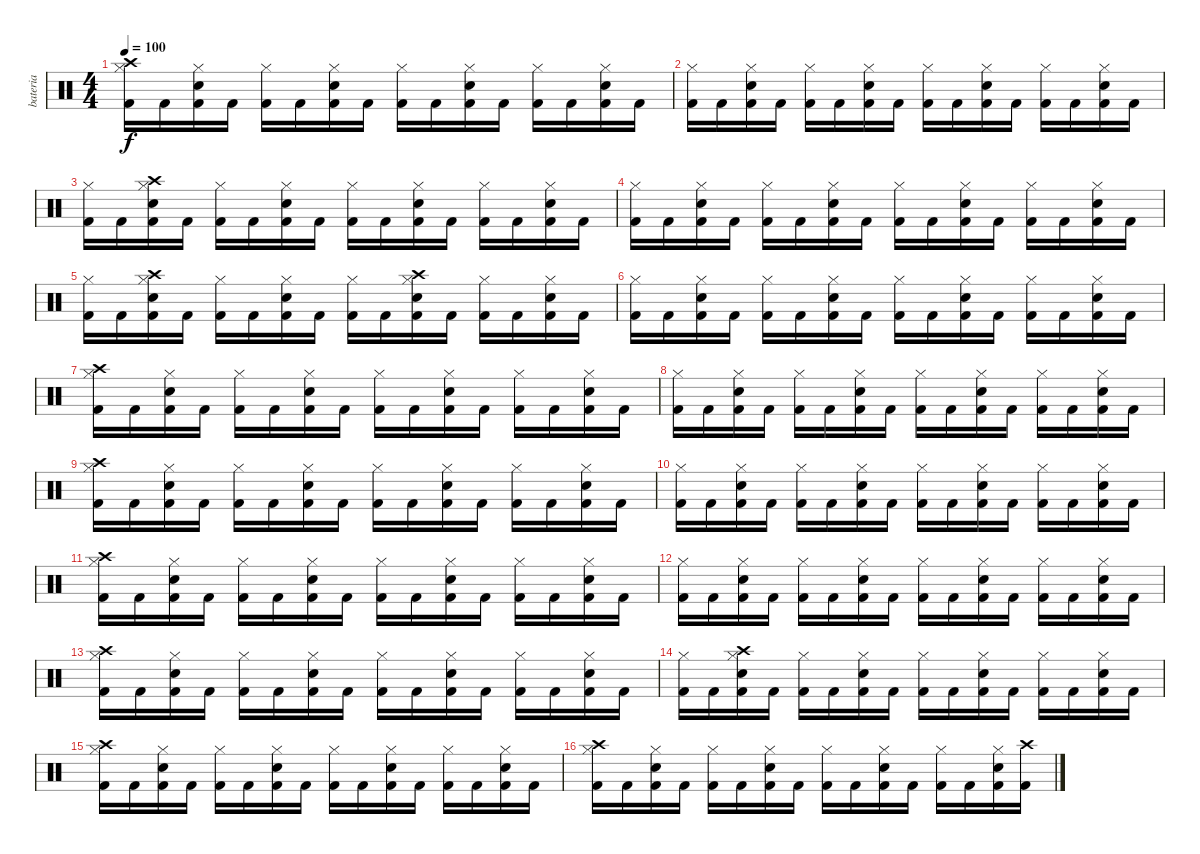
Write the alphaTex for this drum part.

\track ("bateria" "bateria") {instrument percussion}
\staff {score}
\articulation defaults
\ts (4 4)
\tempo 100
\clef neutral
\ks c
("Kick (hit) 2" "Hi-Hat (closed)" "Crash high (hit)").16{dy f} "Kick (hit) 2".16 ("Kick (hit) 2" "Electric Snare (hit)" "Hi-Hat (closed)").16 "Kick (hit) 2".16 ("Kick (hit) 2" "Hi-Hat (closed)").16 "Kick (hit) 2".16 ("Kick (hit) 2" "Electric Snare (hit)" "Hi-Hat (closed)").16 "Kick (hit) 2".16 ("Kick (hit) 2" "Hi-Hat (closed)").16 "Kick (hit) 2".16 ("Kick (hit) 2" "Electric Snare (hit)" "Hi-Hat (closed)").16 "Kick (hit) 2".16 ("Kick (hit) 2" "Hi-Hat (closed)").16 "Kick (hit) 2".16 ("Kick (hit) 2" "Electric Snare (hit)" "Hi-Hat (closed)").16 "Kick (hit) 2".16 |
("Kick (hit) 2" "Hi-Hat (closed)").16 "Kick (hit) 2".16 ("Kick (hit) 2" "Electric Snare (hit)" "Hi-Hat (closed)").16 "Kick (hit) 2".16 ("Kick (hit) 2" "Hi-Hat (closed)").16 "Kick (hit) 2".16 ("Kick (hit) 2" "Electric Snare (hit)" "Hi-Hat (closed)").16 "Kick (hit) 2".16 ("Kick (hit) 2" "Hi-Hat (closed)").16 "Kick (hit) 2".16 ("Kick (hit) 2" "Electric Snare (hit)" "Hi-Hat (closed)").16 "Kick (hit) 2".16 ("Kick (hit) 2" "Hi-Hat (closed)").16 "Kick (hit) 2".16 ("Kick (hit) 2" "Electric Snare (hit)" "Hi-Hat (closed)").16 "Kick (hit) 2".16 |
("Kick (hit) 2" "Hi-Hat (closed)").16 "Kick (hit) 2".16 ("Kick (hit) 2" "Electric Snare (hit)" "Hi-Hat (closed)" "Crash high (hit)").16 "Kick (hit) 2".16 ("Kick (hit) 2" "Hi-Hat (closed)").16 "Kick (hit) 2".16 ("Kick (hit) 2" "Electric Snare (hit)" "Hi-Hat (closed)").16 "Kick (hit) 2".16 ("Kick (hit) 2" "Hi-Hat (closed)").16 "Kick (hit) 2".16 ("Kick (hit) 2" "Electric Snare (hit)" "Hi-Hat (closed)").16 "Kick (hit) 2".16 ("Kick (hit) 2" "Hi-Hat (closed)").16 "Kick (hit) 2".16 ("Kick (hit) 2" "Electric Snare (hit)" "Hi-Hat (closed)").16 "Kick (hit) 2".16 |
("Kick (hit) 2" "Hi-Hat (closed)").16 "Kick (hit) 2".16 ("Kick (hit) 2" "Electric Snare (hit)" "Hi-Hat (closed)").16 "Kick (hit) 2".16 ("Kick (hit) 2" "Hi-Hat (closed)").16 "Kick (hit) 2".16 ("Kick (hit) 2" "Electric Snare (hit)" "Hi-Hat (closed)").16 "Kick (hit) 2".16 ("Kick (hit) 2" "Hi-Hat (closed)").16 "Kick (hit) 2".16 ("Kick (hit) 2" "Electric Snare (hit)" "Hi-Hat (closed)").16 "Kick (hit) 2".16 ("Kick (hit) 2" "Hi-Hat (closed)").16 "Kick (hit) 2".16 ("Kick (hit) 2" "Electric Snare (hit)" "Hi-Hat (closed)").16 "Kick (hit) 2".16 |
("Kick (hit) 2" "Hi-Hat (closed)").16 "Kick (hit) 2".16 ("Kick (hit) 2" "Electric Snare (hit)" "Hi-Hat (closed)" "Crash high (hit)").16 "Kick (hit) 2".16 ("Kick (hit) 2" "Hi-Hat (closed)").16 "Kick (hit) 2".16 ("Kick (hit) 2" "Electric Snare (hit)" "Hi-Hat (closed)").16 "Kick (hit) 2".16 ("Kick (hit) 2" "Hi-Hat (closed)").16 "Kick (hit) 2".16 ("Kick (hit) 2" "Electric Snare (hit)" "Hi-Hat (closed)" "Crash high (hit)").16 "Kick (hit) 2".16 ("Kick (hit) 2" "Hi-Hat (closed)").16 "Kick (hit) 2".16 ("Kick (hit) 2" "Electric Snare (hit)" "Hi-Hat (closed)").16 "Kick (hit) 2".16 |
("Kick (hit) 2" "Hi-Hat (closed)").16 "Kick (hit) 2".16 ("Kick (hit) 2" "Electric Snare (hit)" "Hi-Hat (closed)").16 "Kick (hit) 2".16 ("Kick (hit) 2" "Hi-Hat (closed)").16 "Kick (hit) 2".16 ("Kick (hit) 2" "Electric Snare (hit)" "Hi-Hat (closed)").16 "Kick (hit) 2".16 ("Kick (hit) 2" "Hi-Hat (closed)").16 "Kick (hit) 2".16 ("Kick (hit) 2" "Electric Snare (hit)" "Hi-Hat (closed)").16 "Kick (hit) 2".16 ("Kick (hit) 2" "Hi-Hat (closed)").16 "Kick (hit) 2".16 ("Kick (hit) 2" "Electric Snare (hit)" "Hi-Hat (closed)").16 "Kick (hit) 2".16 |
("Kick (hit) 2" "Hi-Hat (closed)" "Crash high (hit)").16 "Kick (hit) 2".16 ("Kick (hit) 2" "Electric Snare (hit)" "Hi-Hat (closed)").16 "Kick (hit) 2".16 ("Kick (hit) 2" "Hi-Hat (closed)").16 "Kick (hit) 2".16 ("Kick (hit) 2" "Electric Snare (hit)" "Hi-Hat (closed)").16 "Kick (hit) 2".16 ("Kick (hit) 2" "Hi-Hat (closed)").16 "Kick (hit) 2".16 ("Kick (hit) 2" "Electric Snare (hit)" "Hi-Hat (closed)").16 "Kick (hit) 2".16 ("Kick (hit) 2" "Hi-Hat (closed)").16 "Kick (hit) 2".16 ("Kick (hit) 2" "Electric Snare (hit)" "Hi-Hat (closed)").16 "Kick (hit) 2".16 |
("Kick (hit) 2" "Hi-Hat (closed)").16 "Kick (hit) 2".16 ("Kick (hit) 2" "Electric Snare (hit)" "Hi-Hat (closed)").16 "Kick (hit) 2".16 ("Kick (hit) 2" "Hi-Hat (closed)").16 "Kick (hit) 2".16 ("Kick (hit) 2" "Electric Snare (hit)" "Hi-Hat (closed)").16 "Kick (hit) 2".16 ("Kick (hit) 2" "Hi-Hat (closed)").16 "Kick (hit) 2".16 ("Kick (hit) 2" "Electric Snare (hit)" "Hi-Hat (closed)").16 "Kick (hit) 2".16 ("Kick (hit) 2" "Hi-Hat (closed)").16 "Kick (hit) 2".16 ("Kick (hit) 2" "Electric Snare (hit)" "Hi-Hat (closed)").16 "Kick (hit) 2".16 |
("Kick (hit) 2" "Hi-Hat (closed)" "Crash high (hit)").16 "Kick (hit) 2".16 ("Kick (hit) 2" "Electric Snare (hit)" "Hi-Hat (closed)").16 "Kick (hit) 2".16 ("Kick (hit) 2" "Hi-Hat (closed)").16 "Kick (hit) 2".16 ("Kick (hit) 2" "Electric Snare (hit)" "Hi-Hat (closed)").16 "Kick (hit) 2".16 ("Kick (hit) 2" "Hi-Hat (closed)").16 "Kick (hit) 2".16 ("Kick (hit) 2" "Electric Snare (hit)" "Hi-Hat (closed)").16 "Kick (hit) 2".16 ("Kick (hit) 2" "Hi-Hat (closed)").16 "Kick (hit) 2".16 ("Kick (hit) 2" "Electric Snare (hit)" "Hi-Hat (closed)").16 "Kick (hit) 2".16 |
("Kick (hit) 2" "Hi-Hat (closed)").16 "Kick (hit) 2".16 ("Kick (hit) 2" "Electric Snare (hit)" "Hi-Hat (closed)").16 "Kick (hit) 2".16 ("Kick (hit) 2" "Hi-Hat (closed)").16 "Kick (hit) 2".16 ("Kick (hit) 2" "Electric Snare (hit)" "Hi-Hat (closed)").16 "Kick (hit) 2".16 ("Kick (hit) 2" "Hi-Hat (closed)").16 "Kick (hit) 2".16 ("Kick (hit) 2" "Electric Snare (hit)" "Hi-Hat (closed)").16 "Kick (hit) 2".16 ("Kick (hit) 2" "Hi-Hat (closed)").16 "Kick (hit) 2".16 ("Kick (hit) 2" "Electric Snare (hit)" "Hi-Hat (closed)").16 "Kick (hit) 2".16 |
("Kick (hit) 2" "Hi-Hat (closed)" "Crash high (hit)").16 "Kick (hit) 2".16 ("Kick (hit) 2" "Electric Snare (hit)" "Hi-Hat (closed)").16 "Kick (hit) 2".16 ("Kick (hit) 2" "Hi-Hat (closed)").16 "Kick (hit) 2".16 ("Kick (hit) 2" "Electric Snare (hit)" "Hi-Hat (closed)").16 "Kick (hit) 2".16 ("Kick (hit) 2" "Hi-Hat (closed)").16 "Kick (hit) 2".16 ("Kick (hit) 2" "Electric Snare (hit)" "Hi-Hat (closed)").16 "Kick (hit) 2".16 ("Kick (hit) 2" "Hi-Hat (closed)").16 "Kick (hit) 2".16 ("Kick (hit) 2" "Electric Snare (hit)" "Hi-Hat (closed)").16 "Kick (hit) 2".16 |
("Kick (hit) 2" "Hi-Hat (closed)").16 "Kick (hit) 2".16 ("Kick (hit) 2" "Electric Snare (hit)" "Hi-Hat (closed)").16 "Kick (hit) 2".16 ("Kick (hit) 2" "Hi-Hat (closed)").16 "Kick (hit) 2".16 ("Kick (hit) 2" "Electric Snare (hit)" "Hi-Hat (closed)").16 "Kick (hit) 2".16 ("Kick (hit) 2" "Hi-Hat (closed)").16 "Kick (hit) 2".16 ("Kick (hit) 2" "Electric Snare (hit)" "Hi-Hat (closed)").16 "Kick (hit) 2".16 ("Kick (hit) 2" "Hi-Hat (closed)").16 "Kick (hit) 2".16 ("Kick (hit) 2" "Electric Snare (hit)" "Hi-Hat (closed)").16 "Kick (hit) 2".16 |
("Kick (hit) 2" "Hi-Hat (closed)" "Crash high (hit)").16 "Kick (hit) 2".16 ("Kick (hit) 2" "Electric Snare (hit)" "Hi-Hat (closed)").16 "Kick (hit) 2".16 ("Kick (hit) 2" "Hi-Hat (closed)").16 "Kick (hit) 2".16 ("Kick (hit) 2" "Electric Snare (hit)" "Hi-Hat (closed)").16 "Kick (hit) 2".16 ("Kick (hit) 2" "Hi-Hat (closed)").16 "Kick (hit) 2".16 ("Kick (hit) 2" "Electric Snare (hit)" "Hi-Hat (closed)").16 "Kick (hit) 2".16 ("Kick (hit) 2" "Hi-Hat (closed)").16 "Kick (hit) 2".16 ("Kick (hit) 2" "Electric Snare (hit)" "Hi-Hat (closed)").16 "Kick (hit) 2".16 |
("Kick (hit) 2" "Hi-Hat (closed)").16 "Kick (hit) 2".16 ("Kick (hit) 2" "Electric Snare (hit)" "Hi-Hat (closed)" "Crash high (hit)").16 "Kick (hit) 2".16 ("Kick (hit) 2" "Hi-Hat (closed)").16 "Kick (hit) 2".16 ("Kick (hit) 2" "Electric Snare (hit)" "Hi-Hat (closed)").16 "Kick (hit) 2".16 ("Kick (hit) 2" "Hi-Hat (closed)").16 "Kick (hit) 2".16 ("Kick (hit) 2" "Electric Snare (hit)" "Hi-Hat (closed)").16 "Kick (hit) 2".16 ("Kick (hit) 2" "Hi-Hat (closed)").16 "Kick (hit) 2".16 ("Kick (hit) 2" "Electric Snare (hit)" "Hi-Hat (closed)").16 "Kick (hit) 2".16 |
("Kick (hit) 2" "Hi-Hat (closed)" "Crash high (hit)").16 "Kick (hit) 2".16 ("Kick (hit) 2" "Electric Snare (hit)" "Hi-Hat (closed)").16 "Kick (hit) 2".16 ("Kick (hit) 2" "Hi-Hat (closed)").16 "Kick (hit) 2".16 ("Kick (hit) 2" "Electric Snare (hit)" "Hi-Hat (closed)").16 "Kick (hit) 2".16 ("Kick (hit) 2" "Hi-Hat (closed)").16 "Kick (hit) 2".16 ("Kick (hit) 2" "Electric Snare (hit)" "Hi-Hat (closed)").16 "Kick (hit) 2".16 ("Kick (hit) 2" "Hi-Hat (closed)").16 "Kick (hit) 2".16 ("Kick (hit) 2" "Electric Snare (hit)" "Hi-Hat (closed)").16 "Kick (hit) 2".16 |
("Kick (hit) 2" "Hi-Hat (closed)" "Crash high (hit)").16 "Kick (hit) 2".16 ("Kick (hit) 2" "Electric Snare (hit)" "Hi-Hat (closed)").16 "Kick (hit) 2".16 ("Kick (hit) 2" "Hi-Hat (closed)").16 "Kick (hit) 2".16 ("Kick (hit) 2" "Electric Snare (hit)" "Hi-Hat (closed)").16 "Kick (hit) 2".16 ("Kick (hit) 2" "Hi-Hat (closed)").16 "Kick (hit) 2".16 ("Kick (hit) 2" "Electric Snare (hit)" "Hi-Hat (closed)").16 "Kick (hit) 2".16 ("Kick (hit) 2" "Hi-Hat (closed)").16 "Kick (hit) 2".16 ("Kick (hit) 2" "Electric Snare (hit)" "Hi-Hat (closed)").16 ("Kick (hit) 2" "Crash high (hit)").16
